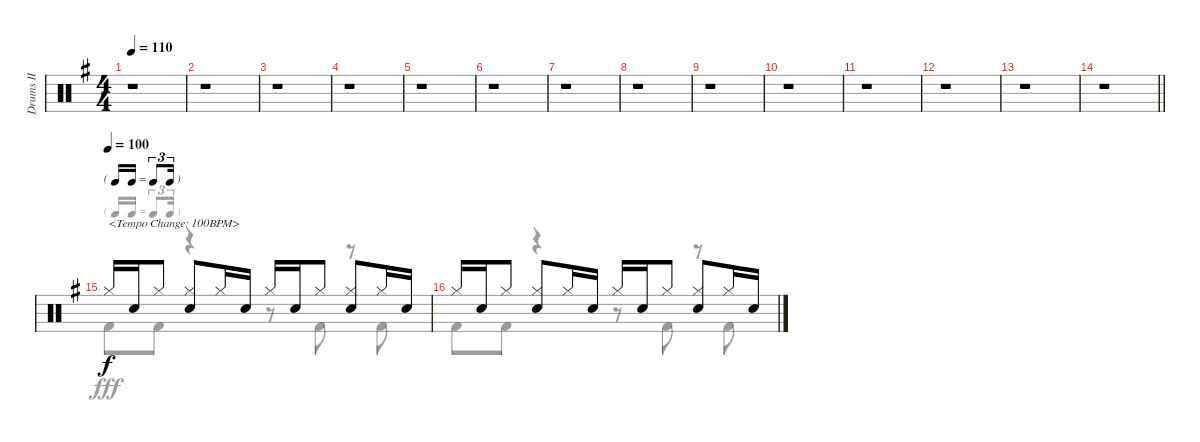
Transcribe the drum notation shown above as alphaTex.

\track ("Drums II" "Drums II") {instrument percussion}
\staff {score}
\articulation defaults
\voice
\ts (4 4)
\tempo 110
\clef neutral
\ks g
r.1{dy f} |
r.1 |
r.1 |
r.1 |
r.1 |
r.1 |
r.1 |
r.1 |
r.1 |
r.1 |
r.1 |
r.1 |
r.1 |
\barLineRight lightlight
r.1 |
\tf triplet16th
\tempo (100)
"Hi-Hat (closed)".16{txt "<Tempo Change: 100BPM>"} "Snare (hit) 2".16 "Hi-Hat (closed)".8 ("Hi-Hat (closed)" "Snare (hit) 2").8 "Hi-Hat (closed)".16 "Snare (hit) 2".16 "Hi-Hat (closed)".16 "Snare (hit) 2".16 "Hi-Hat (closed)".8 ("Hi-Hat (closed)" "Snare (hit) 2").8 "Hi-Hat (closed)".16 "Snare (hit) 2".16 |
"Hi-Hat (closed)".16 "Snare (hit) 2".16 "Hi-Hat (closed)".8 ("Hi-Hat (closed)" "Snare (hit) 2").8 "Hi-Hat (closed)".16 "Snare (hit) 2".16 "Hi-Hat (closed)".16 "Snare (hit) 2".16 "Hi-Hat (closed)".8 ("Hi-Hat (closed)" "Snare (hit) 2").8 "Hi-Hat (closed)".16 "Snare (hit) 2".16
\voice
\clef neutral
\ottava regular
\simile none
\ks g
r.1{dy fff} |
r.1 |
r.1 |
r.1 |
r.1 |
r.1 |
r.1 |
r.1 |
r.1 |
r.1 |
r.1 |
r.1 |
r.1 |
\barLineRight lightlight
r.1 |
"Kick (hit) 2".8 "Kick (hit) 2".8 r.4 r.8 "Kick (hit) 2".8 r.8 "Kick (hit) 2".8 |
"Kick (hit) 2".8 "Kick (hit) 2".8 r.4 r.8 "Kick (hit) 2".8 r.8 "Kick (hit) 2".8
